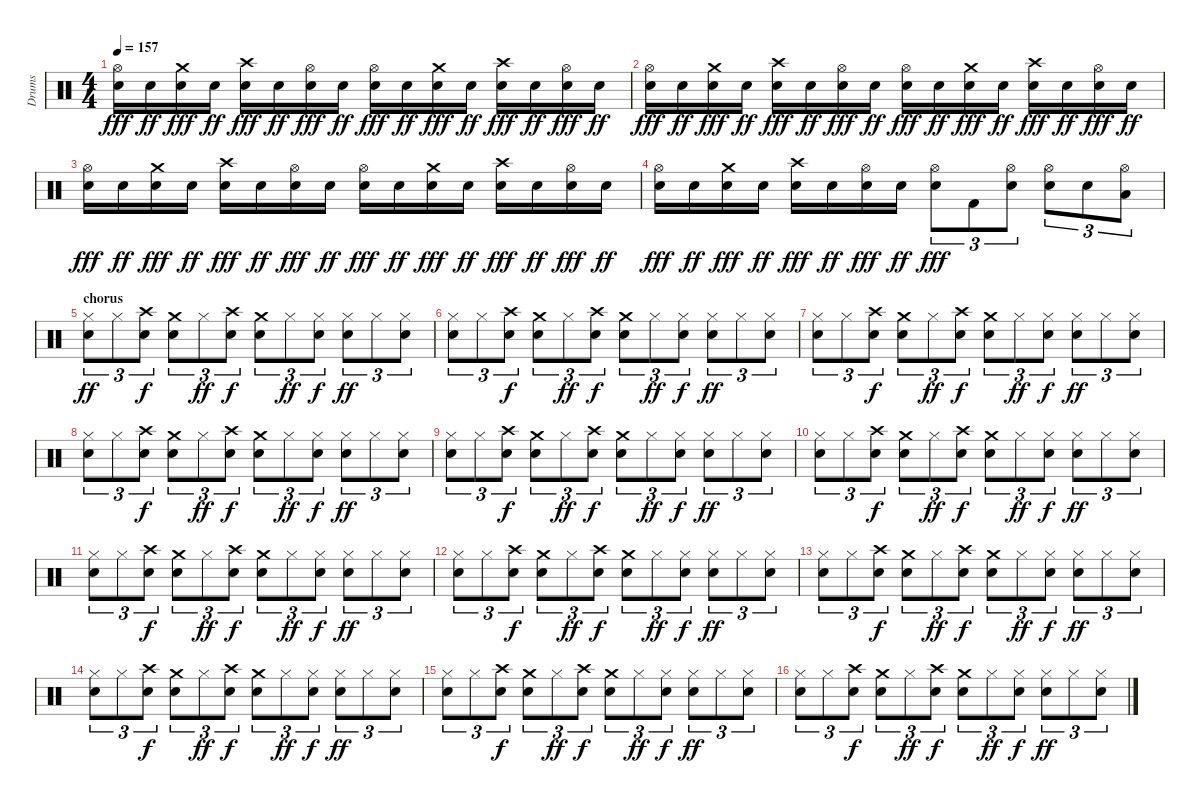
\track ("Drums" "Drums") {instrument percussion}
\staff {score}
\articulation defaults
\ts (4 4)
\tempo 157
\clef neutral
\ks c
("Electric Snare (hit)" "Hi-Hat (open)").16{dy fff} "Electric Snare (hit)".16{dy ff} ("Electric Snare (hit)" "Crash medium (hit)").16{dy fff} "Electric Snare (hit)".16{dy ff} ("Electric Snare (hit)" "Crash high (hit)").16{dy fff} "Electric Snare (hit)".16{dy ff} ("Electric Snare (hit)" "Hi-Hat (open)").16{dy fff} "Electric Snare (hit)".16{dy ff} ("Electric Snare (hit)" "Hi-Hat (open)").16{dy fff} "Electric Snare (hit)".16{dy ff} ("Electric Snare (hit)" "Crash medium (hit)").16{dy fff} "Electric Snare (hit)".16{dy ff} ("Electric Snare (hit)" "Crash high (hit)").16{dy fff} "Electric Snare (hit)".16{dy ff} ("Electric Snare (hit)" "Hi-Hat (open)").16{dy fff} "Electric Snare (hit)".16{dy ff} |
("Electric Snare (hit)" "Hi-Hat (open)").16{dy fff} "Electric Snare (hit)".16{dy ff} ("Electric Snare (hit)" "Crash medium (hit)").16{dy fff} "Electric Snare (hit)".16{dy ff} ("Electric Snare (hit)" "Crash high (hit)").16{dy fff} "Electric Snare (hit)".16{dy ff} ("Electric Snare (hit)" "Hi-Hat (open)").16{dy fff} "Electric Snare (hit)".16{dy ff} ("Electric Snare (hit)" "Hi-Hat (open)").16{dy fff} "Electric Snare (hit)".16{dy ff} ("Electric Snare (hit)" "Crash medium (hit)").16{dy fff} "Electric Snare (hit)".16{dy ff} ("Electric Snare (hit)" "Crash high (hit)").16{dy fff} "Electric Snare (hit)".16{dy ff} ("Electric Snare (hit)" "Hi-Hat (open)").16{dy fff} "Electric Snare (hit)".16{dy ff} |
("Electric Snare (hit)" "Hi-Hat (open)").16{dy fff} "Electric Snare (hit)".16{dy ff} ("Electric Snare (hit)" "Crash medium (hit)").16{dy fff} "Electric Snare (hit)".16{dy ff} ("Electric Snare (hit)" "Crash high (hit)").16{dy fff} "Electric Snare (hit)".16{dy ff} ("Electric Snare (hit)" "Hi-Hat (open)").16{dy fff} "Electric Snare (hit)".16{dy ff} ("Electric Snare (hit)" "Hi-Hat (open)").16{dy fff} "Electric Snare (hit)".16{dy ff} ("Electric Snare (hit)" "Crash medium (hit)").16{dy fff} "Electric Snare (hit)".16{dy ff} ("Electric Snare (hit)" "Crash high (hit)").16{dy fff} "Electric Snare (hit)".16{dy ff} ("Electric Snare (hit)" "Hi-Hat (open)").16{dy fff} "Electric Snare (hit)".16{dy ff} |
("Electric Snare (hit)" "Hi-Hat (open)").16{dy fff} "Electric Snare (hit)".16{dy ff} ("Electric Snare (hit)" "Crash medium (hit)").16{dy fff} "Electric Snare (hit)".16{dy ff} ("Electric Snare (hit)" "Crash high (hit)").16{dy fff} "Electric Snare (hit)".16{dy ff} ("Electric Snare (hit)" "Hi-Hat (open)").16{dy fff} "Electric Snare (hit)".16{dy ff} ("Snare (hit) 2" "Hi-Hat (open)").8{tu (3 2) dy fff} "Kick (hit) 2".8{tu (3 2)} ("Electric Snare (hit)" "Hi-Hat (open)").8{tu (3 2)} ("Electric Snare (hit)" "Hi-Hat (open)").8{tu (3 2)} "Electric Snare (hit)".8{tu (3 2)} ("Low Tom (hit)" "Hi-Hat (open)").8{tu (3 2)} |
\section ("" "chorus")
("Hi-Hat (closed)" "Electric Snare (hit)").8{tu (3 2) dy ff} "Hi-Hat (closed)".8{tu (3 2)} ("Electric Snare (hit)" "Crash high (hit)").8{tu (3 2) dy f} ("Crash medium (hit)" "Electric Snare (hit)").8{tu (3 2)} "Hi-Hat (closed)".8{tu (3 2) dy ff} ("Electric Snare (hit)" "Crash high (hit)").8{tu (3 2) dy f} ("Crash medium (hit)" "Electric Snare (hit)").8{tu (3 2)} "Hi-Hat (closed)".8{tu (3 2) dy ff} ("Electric Snare (hit)" "Hi-Hat (closed)").8{tu (3 2) dy f} ("Hi-Hat (closed)" "Electric Snare (hit)").8{tu (3 2) dy ff} "Hi-Hat (closed)".8{tu (3 2)} ("Hi-Hat (closed)" "Electric Snare (hit)").8{tu (3 2)} |
("Hi-Hat (closed)" "Electric Snare (hit)").8{tu (3 2)} "Hi-Hat (closed)".8{tu (3 2)} ("Electric Snare (hit)" "Crash high (hit)").8{tu (3 2) dy f} ("Crash medium (hit)" "Electric Snare (hit)").8{tu (3 2)} "Hi-Hat (closed)".8{tu (3 2) dy ff} ("Electric Snare (hit)" "Crash high (hit)").8{tu (3 2) dy f} ("Crash medium (hit)" "Electric Snare (hit)").8{tu (3 2)} "Hi-Hat (closed)".8{tu (3 2) dy ff} ("Electric Snare (hit)" "Hi-Hat (closed)").8{tu (3 2) dy f} ("Hi-Hat (closed)" "Electric Snare (hit)").8{tu (3 2) dy ff} "Hi-Hat (closed)".8{tu (3 2)} ("Hi-Hat (closed)" "Electric Snare (hit)").8{tu (3 2)} |
("Hi-Hat (closed)" "Electric Snare (hit)").8{tu (3 2)} "Hi-Hat (closed)".8{tu (3 2)} ("Electric Snare (hit)" "Crash high (hit)").8{tu (3 2) dy f} ("Crash medium (hit)" "Electric Snare (hit)").8{tu (3 2)} "Hi-Hat (closed)".8{tu (3 2) dy ff} ("Electric Snare (hit)" "Crash high (hit)").8{tu (3 2) dy f} ("Crash medium (hit)" "Electric Snare (hit)").8{tu (3 2)} "Hi-Hat (closed)".8{tu (3 2) dy ff} ("Electric Snare (hit)" "Hi-Hat (closed)").8{tu (3 2) dy f} ("Hi-Hat (closed)" "Electric Snare (hit)").8{tu (3 2) dy ff} "Hi-Hat (closed)".8{tu (3 2)} ("Hi-Hat (closed)" "Electric Snare (hit)").8{tu (3 2)} |
("Hi-Hat (closed)" "Electric Snare (hit)").8{tu (3 2)} "Hi-Hat (closed)".8{tu (3 2)} ("Electric Snare (hit)" "Crash high (hit)").8{tu (3 2) dy f} ("Crash medium (hit)" "Electric Snare (hit)").8{tu (3 2)} "Hi-Hat (closed)".8{tu (3 2) dy ff} ("Electric Snare (hit)" "Crash high (hit)").8{tu (3 2) dy f} ("Crash medium (hit)" "Electric Snare (hit)").8{tu (3 2)} "Hi-Hat (closed)".8{tu (3 2) dy ff} ("Electric Snare (hit)" "Hi-Hat (closed)").8{tu (3 2) dy f} ("Hi-Hat (closed)" "Electric Snare (hit)").8{tu (3 2) dy ff} "Hi-Hat (closed)".8{tu (3 2)} ("Hi-Hat (closed)" "Electric Snare (hit)").8{tu (3 2)} |
("Hi-Hat (closed)" "Electric Snare (hit)").8{tu (3 2)} "Hi-Hat (closed)".8{tu (3 2)} ("Electric Snare (hit)" "Crash high (hit)").8{tu (3 2) dy f} ("Crash medium (hit)" "Electric Snare (hit)").8{tu (3 2)} "Hi-Hat (closed)".8{tu (3 2) dy ff} ("Electric Snare (hit)" "Crash high (hit)").8{tu (3 2) dy f} ("Crash medium (hit)" "Electric Snare (hit)").8{tu (3 2)} "Hi-Hat (closed)".8{tu (3 2) dy ff} ("Electric Snare (hit)" "Hi-Hat (closed)").8{tu (3 2) dy f} ("Hi-Hat (closed)" "Electric Snare (hit)").8{tu (3 2) dy ff} "Hi-Hat (closed)".8{tu (3 2)} ("Hi-Hat (closed)" "Electric Snare (hit)").8{tu (3 2)} |
("Hi-Hat (closed)" "Electric Snare (hit)").8{tu (3 2)} "Hi-Hat (closed)".8{tu (3 2)} ("Electric Snare (hit)" "Crash high (hit)").8{tu (3 2) dy f} ("Crash medium (hit)" "Electric Snare (hit)").8{tu (3 2)} "Hi-Hat (closed)".8{tu (3 2) dy ff} ("Electric Snare (hit)" "Crash high (hit)").8{tu (3 2) dy f} ("Crash medium (hit)" "Electric Snare (hit)").8{tu (3 2)} "Hi-Hat (closed)".8{tu (3 2) dy ff} ("Electric Snare (hit)" "Hi-Hat (closed)").8{tu (3 2) dy f} ("Hi-Hat (closed)" "Electric Snare (hit)").8{tu (3 2) dy ff} "Hi-Hat (closed)".8{tu (3 2)} ("Hi-Hat (closed)" "Electric Snare (hit)").8{tu (3 2)} |
("Hi-Hat (closed)" "Electric Snare (hit)").8{tu (3 2)} "Hi-Hat (closed)".8{tu (3 2)} ("Electric Snare (hit)" "Crash high (hit)").8{tu (3 2) dy f} ("Crash medium (hit)" "Electric Snare (hit)").8{tu (3 2)} "Hi-Hat (closed)".8{tu (3 2) dy ff} ("Electric Snare (hit)" "Crash high (hit)").8{tu (3 2) dy f} ("Crash medium (hit)" "Electric Snare (hit)").8{tu (3 2)} "Hi-Hat (closed)".8{tu (3 2) dy ff} ("Electric Snare (hit)" "Hi-Hat (closed)").8{tu (3 2) dy f} ("Hi-Hat (closed)" "Electric Snare (hit)").8{tu (3 2) dy ff} "Hi-Hat (closed)".8{tu (3 2)} ("Hi-Hat (closed)" "Electric Snare (hit)").8{tu (3 2)} |
("Hi-Hat (closed)" "Electric Snare (hit)").8{tu (3 2)} "Hi-Hat (closed)".8{tu (3 2)} ("Electric Snare (hit)" "Crash high (hit)").8{tu (3 2) dy f} ("Crash medium (hit)" "Electric Snare (hit)").8{tu (3 2)} "Hi-Hat (closed)".8{tu (3 2) dy ff} ("Electric Snare (hit)" "Crash high (hit)").8{tu (3 2) dy f} ("Crash medium (hit)" "Electric Snare (hit)").8{tu (3 2)} "Hi-Hat (closed)".8{tu (3 2) dy ff} ("Electric Snare (hit)" "Hi-Hat (closed)").8{tu (3 2) dy f} ("Hi-Hat (closed)" "Electric Snare (hit)").8{tu (3 2) dy ff} "Hi-Hat (closed)".8{tu (3 2)} ("Hi-Hat (closed)" "Electric Snare (hit)").8{tu (3 2)} |
("Hi-Hat (closed)" "Electric Snare (hit)").8{tu (3 2)} "Hi-Hat (closed)".8{tu (3 2)} ("Electric Snare (hit)" "Crash high (hit)").8{tu (3 2) dy f} ("Crash medium (hit)" "Electric Snare (hit)").8{tu (3 2)} "Hi-Hat (closed)".8{tu (3 2) dy ff} ("Electric Snare (hit)" "Crash high (hit)").8{tu (3 2) dy f} ("Crash medium (hit)" "Electric Snare (hit)").8{tu (3 2)} "Hi-Hat (closed)".8{tu (3 2) dy ff} ("Electric Snare (hit)" "Hi-Hat (closed)").8{tu (3 2) dy f} ("Hi-Hat (closed)" "Electric Snare (hit)").8{tu (3 2) dy ff} "Hi-Hat (closed)".8{tu (3 2)} ("Hi-Hat (closed)" "Electric Snare (hit)").8{tu (3 2)} |
("Hi-Hat (closed)" "Electric Snare (hit)").8{tu (3 2)} "Hi-Hat (closed)".8{tu (3 2)} ("Electric Snare (hit)" "Crash high (hit)").8{tu (3 2) dy f} ("Crash medium (hit)" "Electric Snare (hit)").8{tu (3 2)} "Hi-Hat (closed)".8{tu (3 2) dy ff} ("Electric Snare (hit)" "Crash high (hit)").8{tu (3 2) dy f} ("Crash medium (hit)" "Electric Snare (hit)").8{tu (3 2)} "Hi-Hat (closed)".8{tu (3 2) dy ff} ("Electric Snare (hit)" "Hi-Hat (closed)").8{tu (3 2) dy f} ("Hi-Hat (closed)" "Electric Snare (hit)").8{tu (3 2) dy ff} "Hi-Hat (closed)".8{tu (3 2)} ("Hi-Hat (closed)" "Electric Snare (hit)").8{tu (3 2)} |
("Hi-Hat (closed)" "Electric Snare (hit)").8{tu (3 2)} "Hi-Hat (closed)".8{tu (3 2)} ("Electric Snare (hit)" "Crash high (hit)").8{tu (3 2) dy f} ("Crash medium (hit)" "Electric Snare (hit)").8{tu (3 2)} "Hi-Hat (closed)".8{tu (3 2) dy ff} ("Electric Snare (hit)" "Crash high (hit)").8{tu (3 2) dy f} ("Crash medium (hit)" "Electric Snare (hit)").8{tu (3 2)} "Hi-Hat (closed)".8{tu (3 2) dy ff} ("Electric Snare (hit)" "Hi-Hat (closed)").8{tu (3 2) dy f} ("Hi-Hat (closed)" "Electric Snare (hit)").8{tu (3 2) dy ff} "Hi-Hat (closed)".8{tu (3 2)} ("Hi-Hat (closed)" "Electric Snare (hit)").8{tu (3 2)} |
("Hi-Hat (closed)" "Electric Snare (hit)").8{tu (3 2)} "Hi-Hat (closed)".8{tu (3 2)} ("Electric Snare (hit)" "Crash high (hit)").8{tu (3 2) dy f} ("Crash medium (hit)" "Electric Snare (hit)").8{tu (3 2)} "Hi-Hat (closed)".8{tu (3 2) dy ff} ("Electric Snare (hit)" "Crash high (hit)").8{tu (3 2) dy f} ("Crash medium (hit)" "Electric Snare (hit)").8{tu (3 2)} "Hi-Hat (closed)".8{tu (3 2) dy ff} ("Electric Snare (hit)" "Hi-Hat (closed)").8{tu (3 2) dy f} ("Hi-Hat (closed)" "Electric Snare (hit)").8{tu (3 2) dy ff} "Hi-Hat (closed)".8{tu (3 2)} ("Hi-Hat (closed)" "Electric Snare (hit)").8{tu (3 2)}
